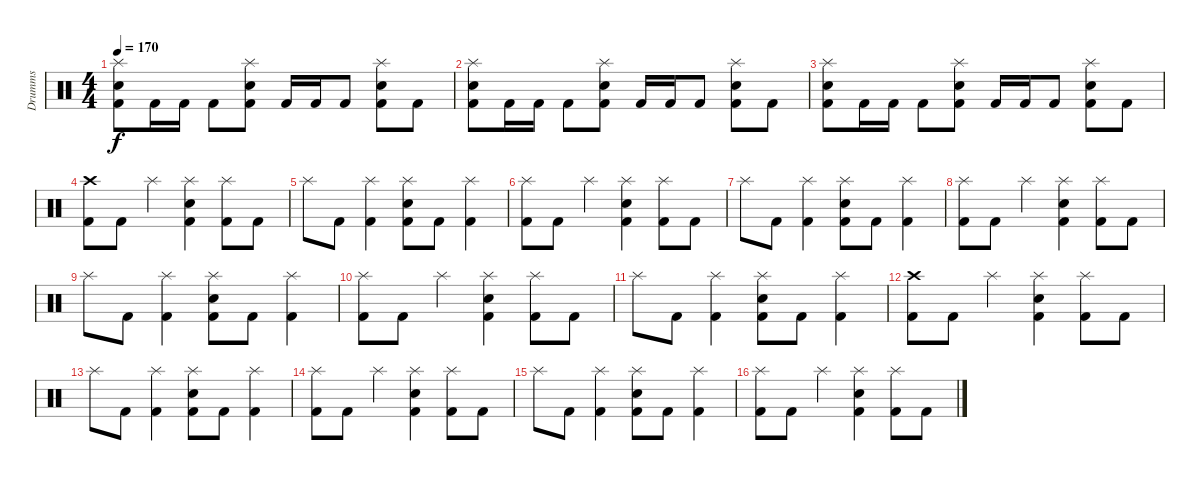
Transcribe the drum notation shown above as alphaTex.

\track ("Drumms" "Drumms") {instrument percussion}
\staff {score}
\articulation defaults
\ts (4 4)
\tempo 170
\clef neutral
\ks c
("Kick (hit) 2" "Snare (hit) 2" "Splash (hit)").8{dy f} "Kick (hit) 2".16 "Kick (hit) 2".16 "Kick (hit) 2".8 ("Kick (hit) 2" "Snare (hit) 2" "Splash (hit)").8 "Kick (hit) 2".16 "Kick (hit) 2".16 "Kick (hit) 2".8 ("Kick (hit) 2" "Snare (hit) 2" "Splash (hit)").8 "Kick (hit) 2".8 |
("Kick (hit) 2" "Snare (hit) 2" "Splash (hit)").8 "Kick (hit) 2".16 "Kick (hit) 2".16 "Kick (hit) 2".8 ("Kick (hit) 2" "Snare (hit) 2" "Splash (hit)").8 "Kick (hit) 2".16 "Kick (hit) 2".16 "Kick (hit) 2".8 ("Kick (hit) 2" "Snare (hit) 2" "Splash (hit)").8 "Kick (hit) 2".8 |
("Kick (hit) 2" "Snare (hit) 2" "Splash (hit)").8 "Kick (hit) 2".16 "Kick (hit) 2".16 "Kick (hit) 2".8 ("Kick (hit) 2" "Snare (hit) 2" "Splash (hit)").8 "Kick (hit) 2".16 "Kick (hit) 2".16 "Kick (hit) 2".8 ("Kick (hit) 2" "Snare (hit) 2" "Splash (hit)").8 "Kick (hit) 2".8 |
("Kick (hit) 2" "Crash high (hit)").8 "Kick (hit) 2".8 "Splash (hit)".4 ("Kick (hit) 2" "Snare (hit) 2" "Splash (hit)").4 ("Kick (hit) 2" "Splash (hit)").8 "Kick (hit) 2".8 |
"Splash (hit)".8 "Kick (hit) 2".8 ("Kick (hit) 2" "Splash (hit)").4 ("Kick (hit) 2" "Snare (hit) 2" "Splash (hit)").8 "Kick (hit) 2".8 ("Kick (hit) 2" "Splash (hit)").4 |
("Kick (hit) 2" "Splash (hit)").8 "Kick (hit) 2".8 "Splash (hit)".4 ("Kick (hit) 2" "Snare (hit) 2" "Splash (hit)").4 ("Kick (hit) 2" "Splash (hit)").8 "Kick (hit) 2".8 |
"Splash (hit)".8 "Kick (hit) 2".8 ("Kick (hit) 2" "Splash (hit)").4 ("Kick (hit) 2" "Snare (hit) 2" "Splash (hit)").8 "Kick (hit) 2".8 ("Kick (hit) 2" "Splash (hit)").4 |
("Kick (hit) 2" "Splash (hit)").8 "Kick (hit) 2".8 "Splash (hit)".4 ("Kick (hit) 2" "Snare (hit) 2" "Splash (hit)").4 ("Kick (hit) 2" "Splash (hit)").8 "Kick (hit) 2".8 |
"Splash (hit)".8 "Kick (hit) 2".8 ("Kick (hit) 2" "Splash (hit)").4 ("Kick (hit) 2" "Snare (hit) 2" "Splash (hit)").8 "Kick (hit) 2".8 ("Kick (hit) 2" "Splash (hit)").4 |
("Kick (hit) 2" "Splash (hit)").8 "Kick (hit) 2".8 "Splash (hit)".4 ("Kick (hit) 2" "Snare (hit) 2" "Splash (hit)").4 ("Kick (hit) 2" "Splash (hit)").8 "Kick (hit) 2".8 |
"Splash (hit)".8 "Kick (hit) 2".8 ("Kick (hit) 2" "Splash (hit)").4 ("Kick (hit) 2" "Snare (hit) 2" "Splash (hit)").8 "Kick (hit) 2".8 ("Kick (hit) 2" "Splash (hit)").4 |
("Kick (hit) 2" "Crash high (hit)").8 "Kick (hit) 2".8 "Splash (hit)".4 ("Kick (hit) 2" "Snare (hit) 2" "Splash (hit)").4 ("Kick (hit) 2" "Splash (hit)").8 "Kick (hit) 2".8 |
"Splash (hit)".8 "Kick (hit) 2".8 ("Kick (hit) 2" "Splash (hit)").4 ("Kick (hit) 2" "Snare (hit) 2" "Splash (hit)").8 "Kick (hit) 2".8 ("Kick (hit) 2" "Splash (hit)").4 |
("Kick (hit) 2" "Splash (hit)").8 "Kick (hit) 2".8 "Splash (hit)".4 ("Kick (hit) 2" "Snare (hit) 2" "Splash (hit)").4 ("Kick (hit) 2" "Splash (hit)").8 "Kick (hit) 2".8 |
"Splash (hit)".8 "Kick (hit) 2".8 ("Kick (hit) 2" "Splash (hit)").4 ("Kick (hit) 2" "Snare (hit) 2" "Splash (hit)").8 "Kick (hit) 2".8 ("Kick (hit) 2" "Splash (hit)").4 |
("Kick (hit) 2" "Splash (hit)").8 "Kick (hit) 2".8 "Splash (hit)".4 ("Kick (hit) 2" "Snare (hit) 2" "Splash (hit)").4 ("Kick (hit) 2" "Splash (hit)").8 "Kick (hit) 2".8
